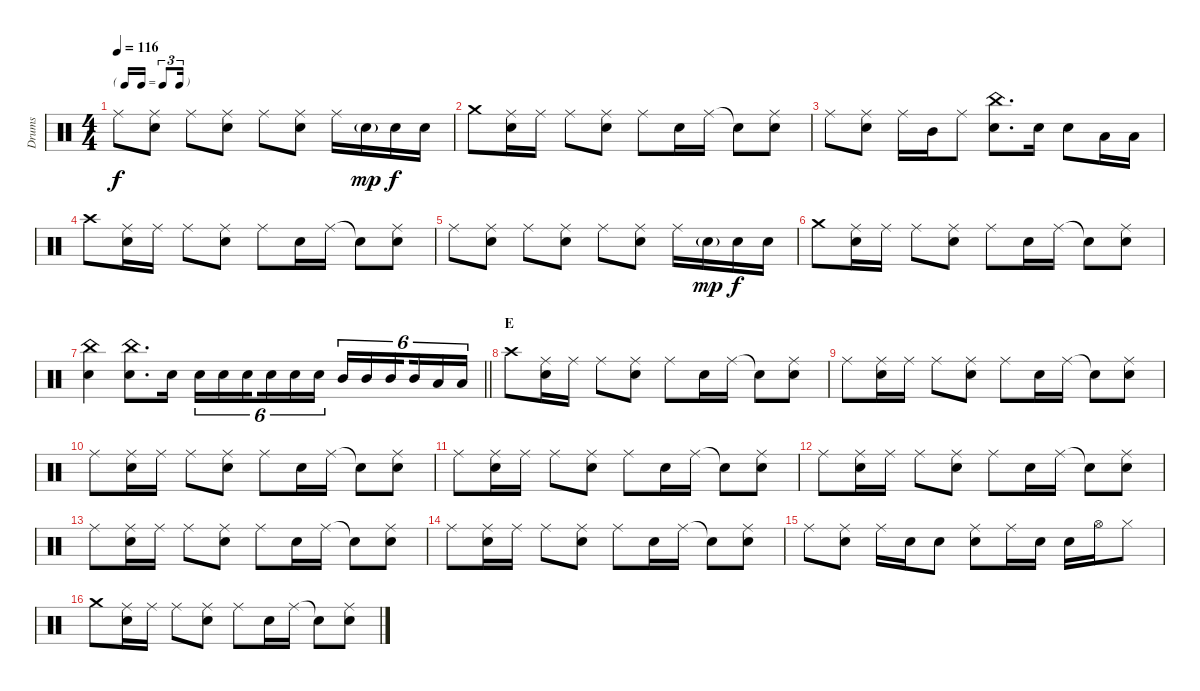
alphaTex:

\track ("Drums" "Drums") {instrument percussion}
\staff {score}
\articulation defaults
\ts (4 4)
\tf triplet16th
\tempo 116
\clef neutral
\ks c "Ride (middle)".8{dy f}
("Ride (middle)" "Snare (hit) 2").8 "Ride (middle)".8 ("Ride (middle)" "Snare (hit) 2").8 "Ride (middle)".8 ("Ride (middle)" "Snare (hit) 2").8 "Ride (middle)".16 "Snare (hit) 2"{g}.16{dy mp} "Snare (hit) 2".16{dy f} "Snare (hit) 2".16 |
"Crash medium (hit)".8 ("Ride (middle)" "Snare (hit) 2").16 "Ride (middle)".16 "Ride (middle)".8 ("Ride (middle)" "Snare (hit) 2").8 "Ride (middle)".8 "Snare (hit) 2".16 "Ride (middle)".16 "Snare (hit)"{t}.8 ("Ride (middle)" "Snare (hit) 2").8 |
"Ride (middle)".8 ("Ride (middle)" "Snare (hit) 2").8 "Ride (middle)".16 "Mid Tom (hit)".16 "Ride (middle)".8 ("China (hit)" "Snare (hit) 2").8{d} "Snare (hit) 2".16 "Snare (hit) 2".8 "Low Tom (hit)".16 "Low Tom (hit)".16 |
"Crash high (hit)".8 ("Ride (middle)" "Snare (hit) 2").16 "Ride (middle)".16 "Ride (middle)".8 ("Ride (middle)" "Snare (hit) 2").8 "Ride (middle)".8 "Snare (hit) 2".16 "Ride (middle)".16 "Snare (hit)"{t}.8 ("Ride (middle)" "Snare (hit) 2").8 |
"Ride (middle)".8 ("Ride (middle)" "Snare (hit) 2").8 "Ride (middle)".8 ("Ride (middle)" "Snare (hit) 2").8 "Ride (middle)".8 ("Ride (middle)" "Snare (hit) 2").8 "Ride (middle)".16 "Snare (hit) 2"{g}.16{dy mp} "Snare (hit) 2".16{dy f} "Snare (hit) 2".16 |
"Crash medium (hit)".8 ("Ride (middle)" "Snare (hit) 2").16 "Ride (middle)".16 "Ride (middle)".8 ("Ride (middle)" "Snare (hit) 2").8 "Ride (middle)".8 "Snare (hit) 2".16 "Ride (middle)".16 "Snare (hit)"{t}.8 ("Ride (middle)" "Snare (hit) 2").8 |
\barLineRight lightlight
("China (hit)" "Snare (hit) 2").4 ("China (hit)" "Snare (hit) 2").8{d} "Snare (hit) 2".16 "Snare (hit) 2".16{tu (6 4)} "Snare (hit) 2".16{tu (6 4)} "Snare (hit) 2".16{tu (6 4) beam splitsecondary} "Snare (hit) 2".16{tu (6 4)} "Snare (hit) 2".16{tu (6 4)} "Snare (hit) 2".16{tu (6 4)} "Mid Tom (hit)".16{tu (6 4)} "Mid Tom (hit)".16{tu (6 4)} "Mid Tom (hit)".16{tu (6 4) beam splitsecondary} "Mid Tom (hit)".16{tu (6 4)} "Low Tom (hit)".16{tu (6 4)} "Low Tom (hit)".16{tu (6 4)} |
\section ("" "E")
"Crash high (hit)".8 ("Ride (middle)" "Snare (hit) 2").16 "Ride (middle)".16 "Ride (middle)".8 ("Ride (middle)" "Snare (hit) 2").8 "Ride (middle)".8 "Snare (hit) 2".16 "Ride (middle)".16 "Snare (hit)"{t}.8 ("Ride (middle)" "Snare (hit) 2").8 |
"Ride (middle)".8 ("Ride (middle)" "Snare (hit) 2").16 "Ride (middle)".16 "Ride (middle)".8 ("Ride (middle)" "Snare (hit) 2").8 "Ride (middle)".8 "Snare (hit) 2".16 "Ride (middle)".16 "Snare (hit)"{t}.8 ("Ride (middle)" "Snare (hit) 2").8 |
"Ride (middle)".8 ("Ride (middle)" "Snare (hit) 2").16 "Ride (middle)".16 "Ride (middle)".8 ("Ride (middle)" "Snare (hit) 2").8 "Ride (middle)".8 "Snare (hit) 2".16 "Ride (middle)".16 "Snare (hit)"{t}.8 ("Ride (middle)" "Snare (hit) 2").8 |
"Ride (middle)".8 ("Ride (middle)" "Snare (hit) 2").16 "Ride (middle)".16 "Ride (middle)".8 ("Ride (middle)" "Snare (hit) 2").8 "Ride (middle)".8 "Snare (hit) 2".16 "Ride (middle)".16 "Snare (hit)"{t}.8 ("Ride (middle)" "Snare (hit) 2").8 |
"Ride (middle)".8 ("Ride (middle)" "Snare (hit) 2").16 "Ride (middle)".16 "Ride (middle)".8 ("Ride (middle)" "Snare (hit) 2").8 "Ride (middle)".8 "Snare (hit) 2".16 "Ride (middle)".16 "Snare (hit)"{t}.8 ("Ride (middle)" "Snare (hit) 2").8 |
"Ride (middle)".8 ("Ride (middle)" "Snare (hit) 2").16 "Ride (middle)".16 "Ride (middle)".8 ("Ride (middle)" "Snare (hit) 2").8 "Ride (middle)".8 "Snare (hit) 2".16 "Ride (middle)".16 "Snare (hit)"{t}.8 ("Ride (middle)" "Snare (hit) 2").8 |
"Ride (middle)".8 ("Ride (middle)" "Snare (hit) 2").16 "Ride (middle)".16 "Ride (middle)".8 ("Ride (middle)" "Snare (hit) 2").8 "Ride (middle)".8 "Snare (hit) 2".16 "Ride (middle)".16 "Snare (hit)"{t}.8 ("Ride (middle)" "Snare (hit) 2").8 |
"Ride (middle)".8 ("Ride (middle)" "Snare (hit) 2").8 "Ride (middle)".16 "Snare (hit) 2".16 "Snare (hit) 2".8 ("Ride (middle)" "Snare (hit) 2").8 "Ride (middle)".16 "Snare (hit) 2".16 "Snare (hit) 2".16 "Hi-Hat (open)".16 "Hi-Hat (closed)".8 |
"Crash medium (hit)".8 ("Ride (middle)" "Snare (hit) 2").16 "Ride (middle)".16 "Ride (middle)".8 ("Ride (middle)" "Snare (hit) 2").8 "Ride (middle)".8 "Snare (hit) 2".16 "Ride (middle)".16 "Snare (hit)"{t}.8 ("Ride (middle)" "Snare (hit) 2").8
